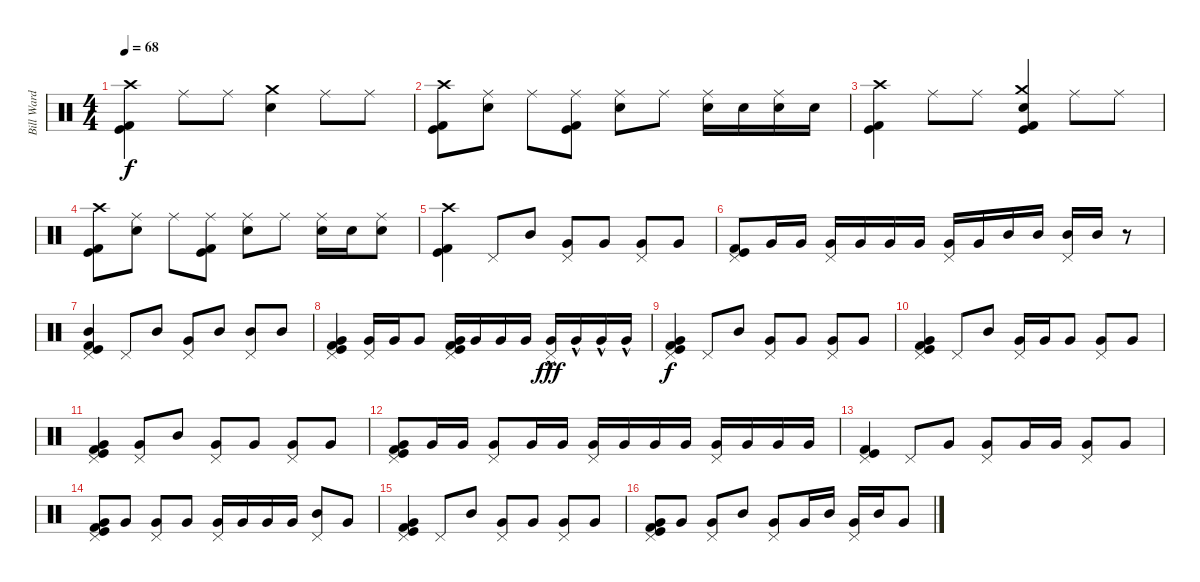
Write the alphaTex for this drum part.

\track ("Bill Ward" "Bill Ward") {instrument percussion}
\staff {score}
\articulation defaults
\ts (4 4)
\tempo 68
\clef neutral
\ks c
("Crash high (hit)" "Kick (hit) 2" "Kick (hit)").4{dy f} "Ride (middle)".8 "Ride (middle)".8 ("Crash medium (hit)" "Snare (hit) 2").4 "Ride (middle)".8 "Ride (middle)".8 |
("Crash high (hit)" "Kick (hit) 2" "Kick (hit)").8 ("Ride (middle)" "Snare (hit) 2").8 "Ride (middle)".8 ("Ride (middle)" "Kick (hit) 2" "Kick (hit)").8 ("Ride (middle)" "Snare (hit) 2").8 "Ride (middle)".8 ("Ride (middle)" "Snare (hit) 2").16 "Snare (hit) 2".16 ("Ride (middle)" "Snare (hit) 2").16 "Snare (hit) 2".16 |
("Crash high (hit)" "Kick (hit) 2" "Kick (hit)").4 "Ride (middle)".8 "Ride (middle)".8 ("Crash medium (hit)" "Snare (hit) 2" "Kick (hit) 2" "Kick (hit)").4 "Ride (middle)".8 "Ride (middle)".8 |
("Crash high (hit)" "Kick (hit) 2" "Kick (hit)").8 ("Ride (middle)" "Snare (hit) 2").8 "Ride (middle)".8 ("Ride (middle)" "Kick (hit) 2" "Kick (hit)").8 ("Ride (middle)" "Snare (hit) 2").8 "Ride (middle)".8 ("Ride (middle)" "Snare (hit) 2").16 "Snare (hit) 2".16 ("Ride (middle)" "Snare (hit) 2").8 |
("Crash high (hit)" "Kick (hit) 2" "Kick (hit)").4 "Pedal Hi-Hat (hit)".8 "Mid Tom (hit)".8 ("Pedal Hi-Hat (hit)" "Very Low Tom (hit)").8 "Very Low Tom (hit)".8 ("Pedal Hi-Hat (hit)" "Very Low Tom (hit)").8 "Very Low Tom (hit)".8 |
("Pedal Hi-Hat (hit)" "Kick (hit) 2" "Kick (hit)").8 "Very Low Tom (hit)".16 "Very Low Tom (hit)".16 ("Very Low Tom (hit)" "Pedal Hi-Hat (hit)").16 "Very Low Tom (hit)".16 "Very Low Tom (hit)".16 "Very Low Tom (hit)".16 ("Very Low Tom (hit)" "Pedal Hi-Hat (hit)").16 "Very Low Tom (hit)".16 "Mid Tom (hit)".16 "Mid Tom (hit)".16 ("Mid Tom (hit)" "Pedal Hi-Hat (hit)").16 "Mid Tom (hit)".16 r.8 |
("Pedal Hi-Hat (hit)" "Mid Tom (hit)" "Kick (hit) 2" "Kick (hit)").4 "Pedal Hi-Hat (hit)".8 "Mid Tom (hit)".8 ("Pedal Hi-Hat (hit)" "Very Low Tom (hit)").8 "Mid Tom (hit)".8 ("Pedal Hi-Hat (hit)" "Mid Tom (hit)").8 "Mid Tom (hit)".8 |
("Pedal Hi-Hat (hit)" "Very Low Tom (hit)" "Kick (hit) 2" "Kick (hit)").4 ("Pedal Hi-Hat (hit)" "Very Low Tom (hit)").16 "Very Low Tom (hit)".16 "Very Low Tom (hit)".8 ("Pedal Hi-Hat (hit)" "Very Low Tom (hit)" "Kick (hit) 2" "Kick (hit)").16 "Very Low Tom (hit)".16 "Very Low Tom (hit)".16 "Very Low Tom (hit)".16 ("Pedal Hi-Hat (hit)" "Very Low Tom (hit)"{hac}).16{dy fff} "Very Low Tom (hit)"{hac}.16 "Very Low Tom (hit)"{hac}.16 "Very Low Tom (hit)"{hac}.16 |
("Pedal Hi-Hat (hit)" "Kick (hit) 2" "Kick (hit)" "Very Low Tom (hit)").4{dy f} "Pedal Hi-Hat (hit)".8 "Mid Tom (hit)".8 ("Pedal Hi-Hat (hit)" "Very Low Tom (hit)").8 "Very Low Tom (hit)".8 ("Pedal Hi-Hat (hit)" "Very Low Tom (hit)").8 "Very Low Tom (hit)".8 |
("Pedal Hi-Hat (hit)" "Kick (hit) 2" "Kick (hit)" "Very Low Tom (hit)").4 "Pedal Hi-Hat (hit)".8 "Mid Tom (hit)".8 ("Pedal Hi-Hat (hit)" "Very Low Tom (hit)").16 "Very Low Tom (hit)".16 "Very Low Tom (hit)".8 ("Pedal Hi-Hat (hit)" "Very Low Tom (hit)").8 "Very Low Tom (hit)".8 |
("Pedal Hi-Hat (hit)" "Kick (hit) 2" "Kick (hit)" "Very Low Tom (hit)").4 ("Pedal Hi-Hat (hit)" "Very Low Tom (hit)").8 "Mid Tom (hit)".8 ("Pedal Hi-Hat (hit)" "Very Low Tom (hit)").8 "Very Low Tom (hit)".8 ("Pedal Hi-Hat (hit)" "Very Low Tom (hit)").8 "Very Low Tom (hit)".8 |
("Pedal Hi-Hat (hit)" "Very Low Tom (hit)" "Kick (hit) 2" "Kick (hit)").8 "Very Low Tom (hit)".16 "Very Low Tom (hit)".16 ("Pedal Hi-Hat (hit)" "Very Low Tom (hit)").8 "Very Low Tom (hit)".16 "Very Low Tom (hit)".16 ("Pedal Hi-Hat (hit)" "Very Low Tom (hit)").16 "Very Low Tom (hit)".16 "Very Low Tom (hit)".16 "Very Low Tom (hit)".16 ("Pedal Hi-Hat (hit)" "Very Low Tom (hit)").16 "Very Low Tom (hit)".16 "Very Low Tom (hit)".16 "Very Low Tom (hit)".16 |
("Pedal Hi-Hat (hit)" "Kick (hit) 2" "Kick (hit)").4 "Pedal Hi-Hat (hit)".8 "Very Low Tom (hit)".8 ("Pedal Hi-Hat (hit)" "Very Low Tom (hit)").8 "Very Low Tom (hit)".16 "Very Low Tom (hit)".16 ("Pedal Hi-Hat (hit)" "Very Low Tom (hit)").8 "Very Low Tom (hit)".8 |
("Pedal Hi-Hat (hit)" "Very Low Tom (hit)" "Kick (hit) 2" "Kick (hit)").8 "Very Low Tom (hit)".8 ("Pedal Hi-Hat (hit)" "Very Low Tom (hit)").8 "Very Low Tom (hit)".8 ("Pedal Hi-Hat (hit)" "Very Low Tom (hit)").16 "Very Low Tom (hit)".16 "Very Low Tom (hit)".16 "Very Low Tom (hit)".16 ("Pedal Hi-Hat (hit)" "Mid Tom (hit)").8 "Very Low Tom (hit)".8 |
("Pedal Hi-Hat (hit)" "Kick (hit) 2" "Kick (hit)" "Very Low Tom (hit)").4 "Pedal Hi-Hat (hit)".8 "Mid Tom (hit)".8 ("Pedal Hi-Hat (hit)" "Very Low Tom (hit)").8 "Very Low Tom (hit)".8 ("Pedal Hi-Hat (hit)" "Very Low Tom (hit)").8 "Very Low Tom (hit)".8 |
("Pedal Hi-Hat (hit)" "Very Low Tom (hit)" "Kick (hit) 2" "Kick (hit)").8 "Very Low Tom (hit)".8 ("Pedal Hi-Hat (hit)" "Very Low Tom (hit)").8 "Mid Tom (hit)".8 ("Pedal Hi-Hat (hit)" "Very Low Tom (hit)").8 "Very Low Tom (hit)".16 "Mid Tom (hit)".16 ("Pedal Hi-Hat (hit)" "Very Low Tom (hit)").16 "Mid Tom (hit)".16 "Very Low Tom (hit)".8
